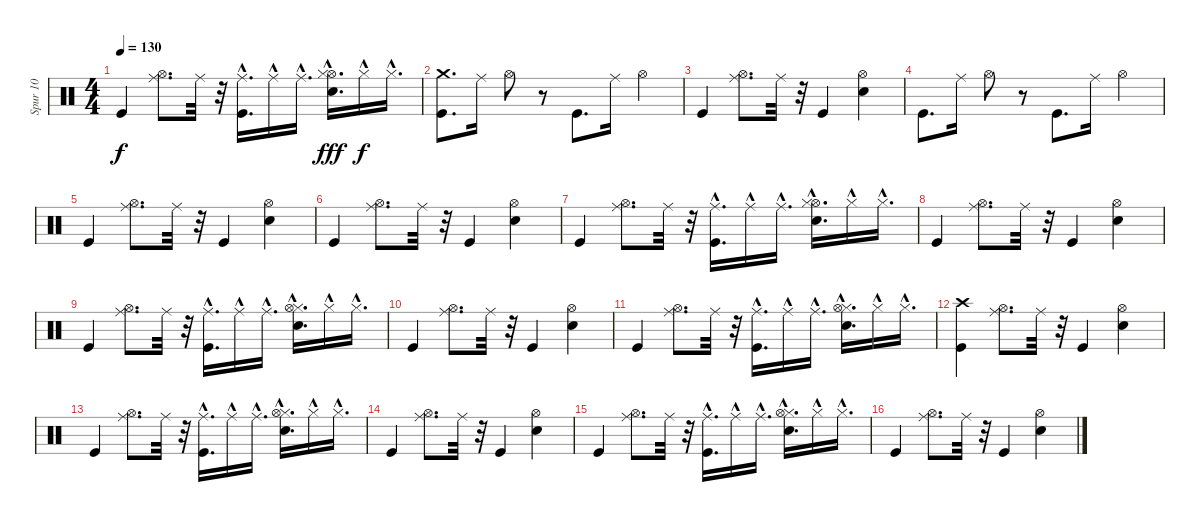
\track ("Spur 10" "Spur 10") {instrument percussion}
\staff {score}
\articulation defaults
\ts (4 4)
\tempo 130
\clef neutral
\ks c "Kick (hit)".4{dy f}
("Hi-Hat (open)" "Ride (middle)").8{d} "Ride (middle)".32 r.32 ("Ride (middle)"{hac} "Kick (hit)").16{d} "Ride (middle)"{hac}.16 "Ride (middle)"{hac}.16{d} ("Hi-Hat (open)" "Hi-Hat (closed)"{hac} "Electric Snare (hit)").16{d dy fff} "Hi-Hat (closed)"{hac}.16{dy f} "Hi-Hat (closed)"{hac}.16{d} |
("Crash medium (hit)" "Kick (hit)").8{d} "Ride (middle)".16 "Hi-Hat (open)".8 r.8 "Kick (hit)".8{d} "Ride (middle)".16 "Hi-Hat (open)".4 |
"Kick (hit)".4 ("Hi-Hat (open)" "Ride (middle)").8{d} "Ride (middle)".32 r.32 "Kick (hit)".4 ("Hi-Hat (open)" "Electric Snare (hit)").4 |
"Kick (hit)".8{d} "Ride (middle)".16 "Hi-Hat (open)".8 r.8 "Kick (hit)".8{d} "Ride (middle)".16 "Hi-Hat (open)".4 |
"Kick (hit)".4 ("Hi-Hat (open)" "Ride (middle)").8{d} "Ride (middle)".32 r.32 "Kick (hit)".4 ("Hi-Hat (open)" "Electric Snare (hit)").4 |
"Kick (hit)".4 ("Hi-Hat (open)" "Ride (middle)").8{d} "Ride (middle)".32 r.32 "Kick (hit)".4 ("Hi-Hat (open)" "Electric Snare (hit)").4 |
"Kick (hit)".4 ("Hi-Hat (open)" "Ride (middle)").8{d} "Ride (middle)".32 r.32 ("Ride (middle)"{hac} "Kick (hit)").16{d} "Ride (middle)"{hac}.16 "Ride (middle)"{hac}.16{d} ("Hi-Hat (open)" "Hi-Hat (closed)"{hac} "Electric Snare (hit)").16{d} "Hi-Hat (closed)"{hac}.16 "Hi-Hat (closed)"{hac}.16{d} |
"Kick (hit)".4 ("Hi-Hat (open)" "Ride (middle)").8{d} "Ride (middle)".32 r.32 "Kick (hit)".4 ("Hi-Hat (open)" "Electric Snare (hit)").4 |
"Kick (hit)".4 ("Hi-Hat (open)" "Ride (middle)").8{d} "Ride (middle)".32 r.32 ("Ride (middle)"{hac} "Kick (hit)").16{d} "Ride (middle)"{hac}.16 "Ride (middle)"{hac}.16{d} ("Hi-Hat (closed)"{hac} "Hi-Hat (open)" "Electric Snare (hit)").16{d} "Hi-Hat (closed)"{hac}.16 "Hi-Hat (closed)"{hac}.16{d} |
"Kick (hit)".4 ("Hi-Hat (open)" "Ride (middle)").8{d} "Ride (middle)".32 r.32 "Kick (hit)".4 ("Hi-Hat (open)" "Electric Snare (hit)").4 |
"Kick (hit)".4 ("Hi-Hat (open)" "Ride (middle)").8{d} "Ride (middle)".32 r.32 ("Ride (middle)"{hac} "Kick (hit)").16{d} "Ride (middle)"{hac}.16 "Ride (middle)"{hac}.16{d} ("Hi-Hat (closed)"{hac} "Hi-Hat (open)" "Electric Snare (hit)").16{d} "Hi-Hat (closed)"{hac}.16 "Hi-Hat (closed)"{hac}.16{d} |
("Crash high (hit)" "Kick (hit)").4 ("Hi-Hat (open)" "Ride (middle)").8{d} "Ride (middle)".32 r.32 "Kick (hit)".4 ("Hi-Hat (open)" "Electric Snare (hit)").4 |
"Kick (hit)".4 ("Hi-Hat (open)" "Ride (middle)").8{d} "Ride (middle)".32 r.32 ("Ride (middle)"{hac} "Kick (hit)").16{d} "Ride (middle)"{hac}.16 "Ride (middle)"{hac}.16{d} ("Hi-Hat (closed)"{hac} "Hi-Hat (open)" "Electric Snare (hit)").16{d} "Hi-Hat (closed)"{hac}.16 "Hi-Hat (closed)"{hac}.16{d} |
"Kick (hit)".4 ("Hi-Hat (open)" "Ride (middle)").8{d} "Ride (middle)".32 r.32 "Kick (hit)".4 ("Hi-Hat (open)" "Electric Snare (hit)").4 |
"Kick (hit)".4 ("Hi-Hat (open)" "Ride (middle)").8{d} "Ride (middle)".32 r.32 ("Ride (middle)"{hac} "Kick (hit)").16{d} "Ride (middle)"{hac}.16 "Ride (middle)"{hac}.16{d} ("Hi-Hat (closed)"{hac} "Hi-Hat (open)" "Electric Snare (hit)").16{d} "Hi-Hat (closed)"{hac}.16 "Hi-Hat (closed)"{hac}.16{d} |
"Kick (hit)".4 ("Hi-Hat (open)" "Ride (middle)").8{d} "Ride (middle)".32 r.32 "Kick (hit)".4 ("Hi-Hat (open)" "Electric Snare (hit)").4
